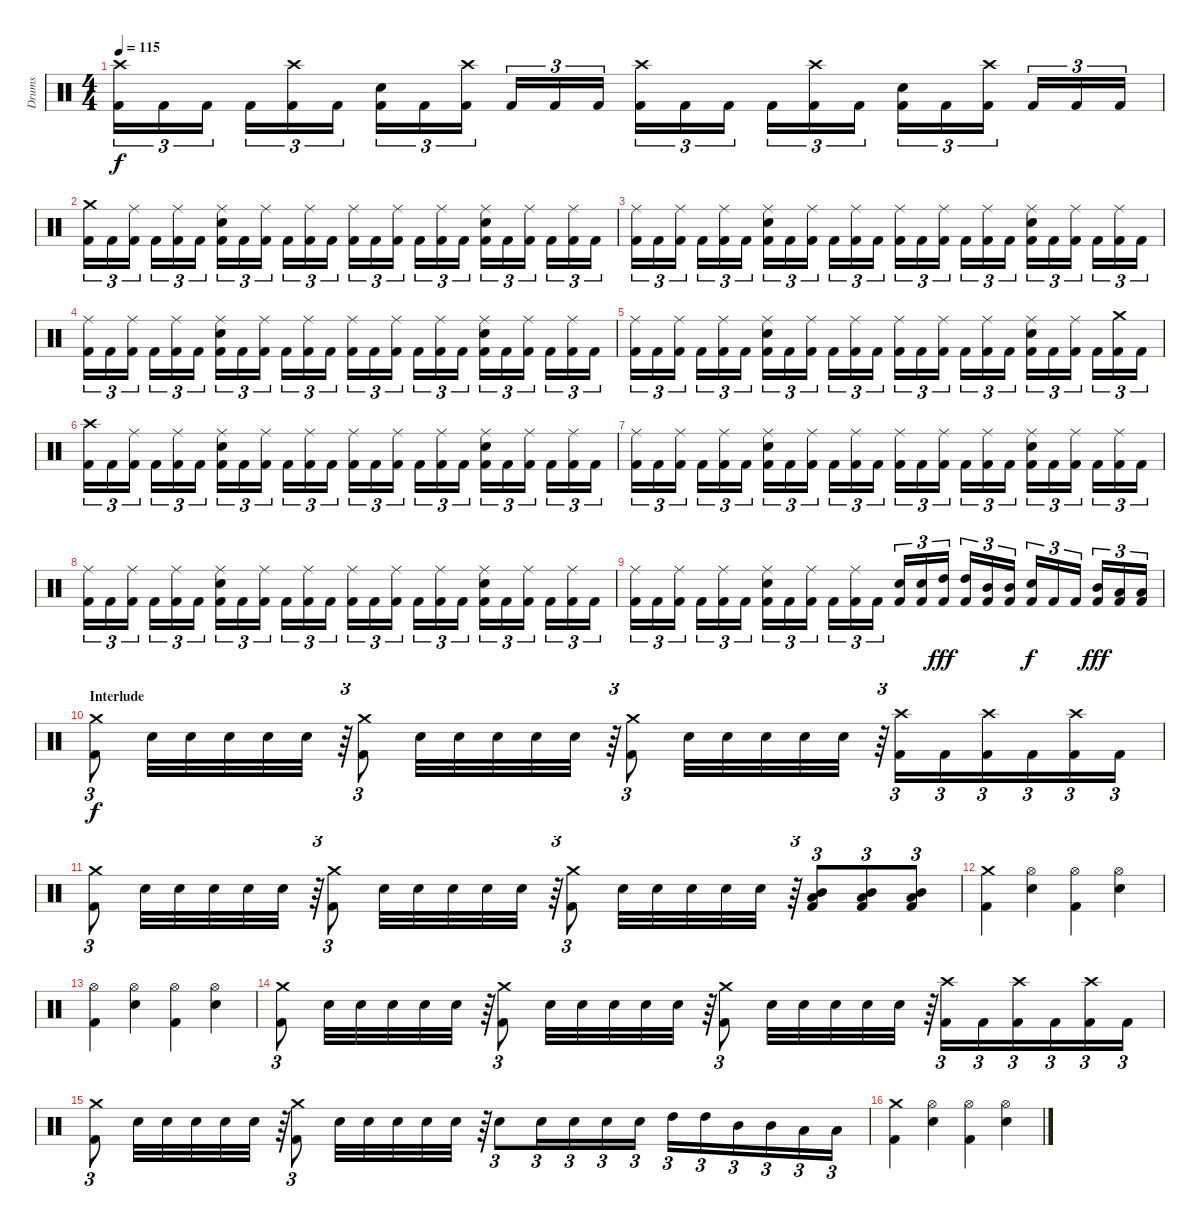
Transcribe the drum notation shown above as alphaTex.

\track ("Drums" "Drums") {instrument percussion}
\staff {score}
\articulation defaults
\ts (4 4)
\tempo 115
\clef neutral
\ks c
("Kick (hit) 2" "Crash high (hit)").16{tu (3 2) dy f} "Kick (hit) 2".16{tu (3 2)} "Kick (hit) 2".16{tu (3 2)} "Kick (hit) 2".16{tu (3 2)} ("Kick (hit) 2" "Crash high (hit)").16{tu (3 2)} "Kick (hit) 2".16{tu (3 2)} ("Kick (hit) 2" "Electric Snare (hit)").16{tu (3 2)} "Kick (hit) 2".16{tu (3 2)} ("Kick (hit) 2" "Crash high (hit)").16{tu (3 2)} "Kick (hit) 2".16{tu (3 2)} "Kick (hit) 2".16{tu (3 2)} "Kick (hit) 2".16{tu (3 2)} ("Kick (hit) 2" "Crash high (hit)").16{tu (3 2)} "Kick (hit) 2".16{tu (3 2)} "Kick (hit) 2".16{tu (3 2)} "Kick (hit) 2".16{tu (3 2)} ("Kick (hit) 2" "Crash high (hit)").16{tu (3 2)} "Kick (hit) 2".16{tu (3 2)} ("Kick (hit) 2" "Electric Snare (hit)").16{tu (3 2)} "Kick (hit) 2".16{tu (3 2)} ("Kick (hit) 2" "Crash high (hit)").16{tu (3 2)} "Kick (hit) 2".16{tu (3 2)} "Kick (hit) 2".16{tu (3 2)} "Kick (hit) 2".16{tu (3 2)} |
("Kick (hit) 2" "Crash medium (hit)").16{tu (3 2)} "Kick (hit) 2".16{tu (3 2)} ("Kick (hit) 2" "Ride (middle)").16{tu (3 2)} "Kick (hit) 2".16{tu (3 2)} ("Kick (hit) 2" "Ride (middle)").16{tu (3 2)} "Kick (hit) 2".16{tu (3 2)} ("Kick (hit) 2" "Electric Snare (hit)" "Ride (middle)").16{tu (3 2)} "Kick (hit) 2".16{tu (3 2)} ("Kick (hit) 2" "Ride (middle)").16{tu (3 2)} "Kick (hit) 2".16{tu (3 2)} ("Kick (hit) 2" "Ride (middle)").16{tu (3 2)} "Kick (hit) 2".16{tu (3 2)} ("Kick (hit) 2" "Ride (middle)").16{tu (3 2)} "Kick (hit) 2".16{tu (3 2)} ("Kick (hit) 2" "Ride (middle)").16{tu (3 2)} "Kick (hit) 2".16{tu (3 2)} ("Kick (hit) 2" "Ride (middle)").16{tu (3 2)} "Kick (hit) 2".16{tu (3 2)} ("Kick (hit) 2" "Electric Snare (hit)" "Ride (middle)").16{tu (3 2)} "Kick (hit) 2".16{tu (3 2)} ("Kick (hit) 2" "Ride (middle)").16{tu (3 2)} "Kick (hit) 2".16{tu (3 2)} ("Kick (hit) 2" "Ride (middle)").16{tu (3 2)} "Kick (hit) 2".16{tu (3 2)} |
("Kick (hit) 2" "Ride (middle)").16{tu (3 2)} "Kick (hit) 2".16{tu (3 2)} ("Kick (hit) 2" "Ride (middle)").16{tu (3 2)} "Kick (hit) 2".16{tu (3 2)} ("Kick (hit) 2" "Ride (middle)").16{tu (3 2)} "Kick (hit) 2".16{tu (3 2)} ("Kick (hit) 2" "Electric Snare (hit)" "Ride (middle)").16{tu (3 2)} "Kick (hit) 2".16{tu (3 2)} ("Kick (hit) 2" "Ride (middle)").16{tu (3 2)} "Kick (hit) 2".16{tu (3 2)} ("Kick (hit) 2" "Ride (middle)").16{tu (3 2)} "Kick (hit) 2".16{tu (3 2)} ("Kick (hit) 2" "Ride (middle)").16{tu (3 2)} "Kick (hit) 2".16{tu (3 2)} ("Kick (hit) 2" "Ride (middle)").16{tu (3 2)} "Kick (hit) 2".16{tu (3 2)} ("Kick (hit) 2" "Ride (middle)").16{tu (3 2)} "Kick (hit) 2".16{tu (3 2)} ("Kick (hit) 2" "Electric Snare (hit)" "Ride (middle)").16{tu (3 2)} "Kick (hit) 2".16{tu (3 2)} ("Kick (hit) 2" "Ride (middle)").16{tu (3 2)} "Kick (hit) 2".16{tu (3 2)} ("Kick (hit) 2" "Ride (middle)").16{tu (3 2)} "Kick (hit) 2".16{tu (3 2)} |
("Kick (hit) 2" "Ride (middle)").16{tu (3 2)} "Kick (hit) 2".16{tu (3 2)} ("Kick (hit) 2" "Ride (middle)").16{tu (3 2)} "Kick (hit) 2".16{tu (3 2)} ("Kick (hit) 2" "Ride (middle)").16{tu (3 2)} "Kick (hit) 2".16{tu (3 2)} ("Kick (hit) 2" "Electric Snare (hit)" "Ride (middle)").16{tu (3 2)} "Kick (hit) 2".16{tu (3 2)} ("Kick (hit) 2" "Ride (middle)").16{tu (3 2)} "Kick (hit) 2".16{tu (3 2)} ("Kick (hit) 2" "Ride (middle)").16{tu (3 2)} "Kick (hit) 2".16{tu (3 2)} ("Kick (hit) 2" "Ride (middle)").16{tu (3 2)} "Kick (hit) 2".16{tu (3 2)} ("Kick (hit) 2" "Ride (middle)").16{tu (3 2)} "Kick (hit) 2".16{tu (3 2)} ("Kick (hit) 2" "Ride (middle)").16{tu (3 2)} "Kick (hit) 2".16{tu (3 2)} ("Kick (hit) 2" "Electric Snare (hit)" "Ride (middle)").16{tu (3 2)} "Kick (hit) 2".16{tu (3 2)} ("Kick (hit) 2" "Ride (middle)").16{tu (3 2)} "Kick (hit) 2".16{tu (3 2)} ("Kick (hit) 2" "Ride (middle)").16{tu (3 2)} "Kick (hit) 2".16{tu (3 2)} |
("Kick (hit) 2" "Ride (middle)").16{tu (3 2)} "Kick (hit) 2".16{tu (3 2)} ("Kick (hit) 2" "Ride (middle)").16{tu (3 2)} "Kick (hit) 2".16{tu (3 2)} ("Kick (hit) 2" "Ride (middle)").16{tu (3 2)} "Kick (hit) 2".16{tu (3 2)} ("Kick (hit) 2" "Electric Snare (hit)" "Ride (middle)").16{tu (3 2)} "Kick (hit) 2".16{tu (3 2)} ("Kick (hit) 2" "Ride (middle)").16{tu (3 2)} "Kick (hit) 2".16{tu (3 2)} ("Kick (hit) 2" "Ride (middle)").16{tu (3 2)} "Kick (hit) 2".16{tu (3 2)} ("Kick (hit) 2" "Ride (middle)").16{tu (3 2)} "Kick (hit) 2".16{tu (3 2)} ("Kick (hit) 2" "Ride (middle)").16{tu (3 2)} "Kick (hit) 2".16{tu (3 2)} ("Kick (hit) 2" "Ride (middle)").16{tu (3 2)} "Kick (hit) 2".16{tu (3 2)} ("Kick (hit) 2" "Electric Snare (hit)" "Ride (middle)").16{tu (3 2)} "Kick (hit) 2".16{tu (3 2)} ("Kick (hit) 2" "Ride (middle)").16{tu (3 2)} "Kick (hit) 2".16{tu (3 2)} ("Kick (hit) 2" "Crash medium (hit)").16{tu (3 2)} "Kick (hit) 2".16{tu (3 2)} |
("Kick (hit) 2" "Crash high (hit)").16{tu (3 2)} "Kick (hit) 2".16{tu (3 2)} ("Kick (hit) 2" "Ride (middle)").16{tu (3 2)} "Kick (hit) 2".16{tu (3 2)} ("Kick (hit) 2" "Ride (middle)").16{tu (3 2)} "Kick (hit) 2".16{tu (3 2)} ("Kick (hit) 2" "Electric Snare (hit)" "Ride (middle)").16{tu (3 2)} "Kick (hit) 2".16{tu (3 2)} ("Kick (hit) 2" "Ride (middle)").16{tu (3 2)} "Kick (hit) 2".16{tu (3 2)} ("Kick (hit) 2" "Ride (middle)").16{tu (3 2)} "Kick (hit) 2".16{tu (3 2)} ("Kick (hit) 2" "Ride (middle)").16{tu (3 2)} "Kick (hit) 2".16{tu (3 2)} ("Kick (hit) 2" "Ride (middle)").16{tu (3 2)} "Kick (hit) 2".16{tu (3 2)} ("Kick (hit) 2" "Ride (middle)").16{tu (3 2)} "Kick (hit) 2".16{tu (3 2)} ("Kick (hit) 2" "Electric Snare (hit)" "Ride (middle)").16{tu (3 2)} "Kick (hit) 2".16{tu (3 2)} ("Kick (hit) 2" "Ride (middle)").16{tu (3 2)} "Kick (hit) 2".16{tu (3 2)} ("Kick (hit) 2" "Ride (middle)").16{tu (3 2)} "Kick (hit) 2".16{tu (3 2)} |
("Kick (hit) 2" "Ride (middle)").16{tu (3 2)} "Kick (hit) 2".16{tu (3 2)} ("Kick (hit) 2" "Ride (middle)").16{tu (3 2)} "Kick (hit) 2".16{tu (3 2)} ("Kick (hit) 2" "Ride (middle)").16{tu (3 2)} "Kick (hit) 2".16{tu (3 2)} ("Kick (hit) 2" "Electric Snare (hit)" "Ride (middle)").16{tu (3 2)} "Kick (hit) 2".16{tu (3 2)} ("Kick (hit) 2" "Ride (middle)").16{tu (3 2)} "Kick (hit) 2".16{tu (3 2)} ("Kick (hit) 2" "Ride (middle)").16{tu (3 2)} "Kick (hit) 2".16{tu (3 2)} ("Kick (hit) 2" "Ride (middle)").16{tu (3 2)} "Kick (hit) 2".16{tu (3 2)} ("Kick (hit) 2" "Ride (middle)").16{tu (3 2)} "Kick (hit) 2".16{tu (3 2)} ("Kick (hit) 2" "Ride (middle)").16{tu (3 2)} "Kick (hit) 2".16{tu (3 2)} ("Kick (hit) 2" "Electric Snare (hit)" "Ride (middle)").16{tu (3 2)} "Kick (hit) 2".16{tu (3 2)} ("Kick (hit) 2" "Ride (middle)").16{tu (3 2)} "Kick (hit) 2".16{tu (3 2)} ("Kick (hit) 2" "Ride (middle)").16{tu (3 2)} "Kick (hit) 2".16{tu (3 2)} |
("Kick (hit) 2" "Ride (middle)").16{tu (3 2)} "Kick (hit) 2".16{tu (3 2)} ("Kick (hit) 2" "Ride (middle)").16{tu (3 2)} "Kick (hit) 2".16{tu (3 2)} ("Kick (hit) 2" "Ride (middle)").16{tu (3 2)} "Kick (hit) 2".16{tu (3 2)} ("Kick (hit) 2" "Electric Snare (hit)" "Ride (middle)").16{tu (3 2)} "Kick (hit) 2".16{tu (3 2)} ("Kick (hit) 2" "Ride (middle)").16{tu (3 2)} "Kick (hit) 2".16{tu (3 2)} ("Kick (hit) 2" "Ride (middle)").16{tu (3 2)} "Kick (hit) 2".16{tu (3 2)} ("Kick (hit) 2" "Ride (middle)").16{tu (3 2)} "Kick (hit) 2".16{tu (3 2)} ("Kick (hit) 2" "Ride (middle)").16{tu (3 2)} "Kick (hit) 2".16{tu (3 2)} ("Kick (hit) 2" "Ride (middle)").16{tu (3 2)} "Kick (hit) 2".16{tu (3 2)} ("Kick (hit) 2" "Electric Snare (hit)" "Ride (middle)").16{tu (3 2)} "Kick (hit) 2".16{tu (3 2)} ("Kick (hit) 2" "Ride (middle)").16{tu (3 2)} "Kick (hit) 2".16{tu (3 2)} ("Kick (hit) 2" "Ride (middle)").16{tu (3 2)} "Kick (hit) 2".16{tu (3 2)} |
("Kick (hit) 2" "Ride (middle)").16{tu (3 2)} "Kick (hit) 2".16{tu (3 2)} ("Kick (hit) 2" "Ride (middle)").16{tu (3 2)} "Kick (hit) 2".16{tu (3 2)} ("Kick (hit) 2" "Ride (middle)").16{tu (3 2)} "Kick (hit) 2".16{tu (3 2)} ("Kick (hit) 2" "Electric Snare (hit)" "Ride (middle)").16{tu (3 2)} "Kick (hit) 2".16{tu (3 2)} ("Kick (hit) 2" "Ride (middle)").16{tu (3 2)} "Kick (hit) 2".16{tu (3 2)} ("Kick (hit) 2" "Ride (middle)").16{tu (3 2)} "Kick (hit) 2".16{tu (3 2)} ("Kick (hit) 2" "Electric Snare (hit)").16{tu (3 2)} ("Kick (hit) 2" "Electric Snare (hit)").16{tu (3 2)} ("Kick (hit) 2" "High Tom (hit)").16{tu (3 2) dy fff} ("Kick (hit) 2" "High Tom (hit)").16{tu (3 2)} ("Kick (hit) 2" "Mid Tom (hit)").16{tu (3 2)} ("Kick (hit) 2" "Mid Tom (hit)").16{tu (3 2)} ("Kick (hit) 2" "Electric Snare (hit)").16{tu (3 2) dy f} "Kick (hit) 2".16{tu (3 2)} "Kick (hit) 2".16{tu (3 2)} ("Kick (hit) 2" "Mid Tom (hit)").16{tu (3 2) dy fff} ("Kick (hit) 2" "Low Tom (hit)").16{tu (3 2)} ("Kick (hit) 2" "Low Tom (hit)").16{tu (3 2)} |
\section ("" "Interlude")
("Kick (hit) 2" "Crash medium (hit)").8{tu (3 2) dy f} "Electric Snare (hit)".32 "Electric Snare (hit)".32 "Electric Snare (hit)".32 "Electric Snare (hit)".32 "Electric Snare (hit)".32 r.64{tu (3 2)} ("Kick (hit) 2" "Crash medium (hit)").8{tu (3 2)} "Electric Snare (hit)".32 "Electric Snare (hit)".32 "Electric Snare (hit)".32 "Electric Snare (hit)".32 "Electric Snare (hit)".32 r.64{tu (3 2)} ("Kick (hit) 2" "Crash medium (hit)").8{tu (3 2)} "Electric Snare (hit)".32 "Electric Snare (hit)".32 "Electric Snare (hit)".32 "Electric Snare (hit)".32 "Electric Snare (hit)".32 r.64{tu (3 2)} ("Kick (hit) 2" "Crash high (hit)").16{tu (3 2)} "Kick (hit) 2".16{tu (3 2)} ("Kick (hit) 2" "Crash high (hit)").16{tu (3 2)} "Kick (hit) 2".16{tu (3 2)} ("Kick (hit) 2" "Crash high (hit)").16{tu (3 2)} "Kick (hit) 2".16{tu (3 2)} |
("Kick (hit) 2" "Crash medium (hit)").8{tu (3 2)} "Electric Snare (hit)".32 "Electric Snare (hit)".32 "Electric Snare (hit)".32 "Electric Snare (hit)".32 "Electric Snare (hit)".32 r.64{tu (3 2)} ("Kick (hit) 2" "Crash medium (hit)").8{tu (3 2)} "Electric Snare (hit)".32 "Electric Snare (hit)".32 "Electric Snare (hit)".32 "Electric Snare (hit)".32 "Electric Snare (hit)".32 r.64{tu (3 2)} ("Kick (hit) 2" "Crash medium (hit)").8{tu (3 2)} "Electric Snare (hit)".32 "Electric Snare (hit)".32 "Electric Snare (hit)".32 "Electric Snare (hit)".32 "Electric Snare (hit)".32 r.64{tu (3 2)} ("Kick (hit) 2" "Mid Tom (hit)" "Low Tom (hit)").8{tu (3 2)} ("Kick (hit) 2" "Mid Tom (hit)" "Low Tom (hit)").8{tu (3 2)} ("Kick (hit) 2" "Mid Tom (hit)" "Low Tom (hit)").8{tu (3 2)} |
("Kick (hit) 2" "Crash medium (hit)").4 ("Electric Snare (hit)" "Hi-Hat (open)").4 ("Kick (hit) 2" "Hi-Hat (open)").4 ("Electric Snare (hit)" "Hi-Hat (open)").4 |
("Kick (hit) 2" "Hi-Hat (open)").4 ("Electric Snare (hit)" "Hi-Hat (open)").4 ("Kick (hit) 2" "Hi-Hat (open)").4 ("Electric Snare (hit)" "Hi-Hat (open)").4 |
("Kick (hit) 2" "Crash medium (hit)").8{tu (3 2)} "Electric Snare (hit)".32 "Electric Snare (hit)".32 "Electric Snare (hit)".32 "Electric Snare (hit)".32 "Electric Snare (hit)".32 r.64{tu (3 2)} ("Kick (hit) 2" "Crash medium (hit)").8{tu (3 2)} "Electric Snare (hit)".32 "Electric Snare (hit)".32 "Electric Snare (hit)".32 "Electric Snare (hit)".32 "Electric Snare (hit)".32 r.64{tu (3 2)} ("Kick (hit) 2" "Crash medium (hit)").8{tu (3 2)} "Electric Snare (hit)".32 "Electric Snare (hit)".32 "Electric Snare (hit)".32 "Electric Snare (hit)".32 "Electric Snare (hit)".32 r.64{tu (3 2)} ("Kick (hit) 2" "Crash high (hit)").16{tu (3 2)} "Kick (hit) 2".16{tu (3 2)} ("Kick (hit) 2" "Crash high (hit)").16{tu (3 2)} "Kick (hit) 2".16{tu (3 2)} ("Kick (hit) 2" "Crash high (hit)").16{tu (3 2)} "Kick (hit) 2".16{tu (3 2)} |
("Kick (hit) 2" "Crash medium (hit)").8{tu (3 2)} "Electric Snare (hit)".32 "Electric Snare (hit)".32 "Electric Snare (hit)".32 "Electric Snare (hit)".32 "Electric Snare (hit)".32 r.64{tu (3 2)} ("Kick (hit) 2" "Crash medium (hit)").8{tu (3 2)} "Electric Snare (hit)".32 "Electric Snare (hit)".32 "Electric Snare (hit)".32 "Electric Snare (hit)".32 "Electric Snare (hit)".32 r.64{tu (3 2)} "Electric Snare (hit)".8{tu (3 2)} "Electric Snare (hit)".16{tu (3 2)} "Electric Snare (hit)".16{tu (3 2)} "Electric Snare (hit)".16{tu (3 2)} "Electric Snare (hit)".16{tu (3 2)} "High Tom (hit)".16{tu (3 2)} "High Tom (hit)".16{tu (3 2)} "Mid Tom (hit)".16{tu (3 2)} "Mid Tom (hit)".16{tu (3 2)} "Low Tom (hit)".16{tu (3 2)} "Low Tom (hit)".16{tu (3 2)} |
("Kick (hit) 2" "Crash medium (hit)").4 ("Electric Snare (hit)" "Hi-Hat (open)").4 ("Kick (hit) 2" "Hi-Hat (open)").4 ("Electric Snare (hit)" "Hi-Hat (open)").4
